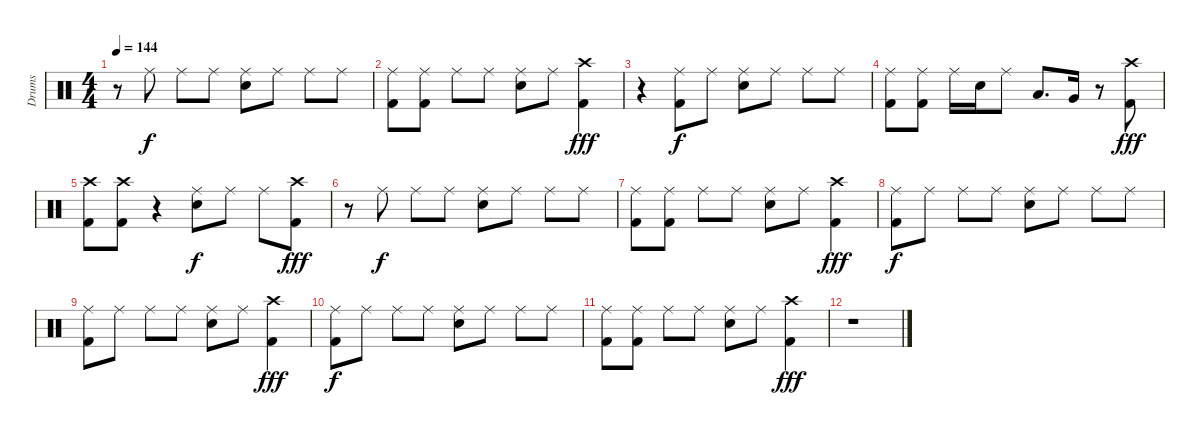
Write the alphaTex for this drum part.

\track ("Drums" "Drums") {instrument percussion}
\staff {score}
\articulation defaults
\ts (4 4)
\tempo 144
\clef neutral
\ks c
r.8{dy fff} "Ride (middle)".8{dy f} "Ride (middle)".8 "Ride (middle)".8 ("Ride (middle)" "Snare (hit) 2").8 "Ride (middle)".8 "Ride (middle)".8 "Ride (middle)".8 |
("Ride (middle)" "Kick (hit) 2").8{volume 8} ("Ride (middle)" "Kick (hit) 2").8 "Ride (middle)".8 "Ride (middle)".8 ("Ride (middle)" "Snare (hit) 2").8 "Ride (middle)".8 ("Crash high (hit)" "Kick (hit) 2").4{dy fff} |
r.4 ("Ride (middle)" "Kick (hit) 2").8{dy f volume 6} "Ride (middle)".8 ("Ride (middle)" "Snare (hit) 2").8 "Ride (middle)".8 "Ride (middle)".8 "Ride (middle)".8 |
("Ride (middle)" "Kick (hit) 2").8{volume 5} ("Ride (middle)" "Kick (hit) 2").8 "Ride (middle)".16 "Snare (hit) 2".16 "Ride (middle)".8 "Low Tom (hit)".8{d} "Very Low Tom (hit)".16 r.8 ("Crash high (hit)" "Kick (hit) 2").8{dy fff} |
("Crash high (hit)" "Kick (hit) 2").8{volume 4} ("Crash high (hit)" "Kick (hit) 2").8 r.4 ("Ride (middle)" "Snare (hit) 2").8{dy f} "Ride (middle)".8 "Ride (middle)".8 ("Crash high (hit)" "Kick (hit) 2").8{dy fff} |
r.8{volume 4} "Ride (middle)".8{dy f} "Ride (middle)".8 "Ride (middle)".8 ("Ride (middle)" "Snare (hit) 2").8 "Ride (middle)".8 "Ride (middle)".8 "Ride (middle)".8 |
("Ride (middle)" "Kick (hit) 2").8{volume 3} ("Ride (middle)" "Kick (hit) 2").8 "Ride (middle)".8 "Ride (middle)".8 ("Ride (middle)" "Snare (hit) 2").8 "Ride (middle)".8 ("Crash high (hit)" "Kick (hit) 2").4{dy fff} |
("Ride (middle)" "Kick (hit) 2").8{dy f volume 2} "Ride (middle)".8 "Ride (middle)".8 "Ride (middle)".8 ("Ride (middle)" "Snare (hit) 2").8 "Ride (middle)".8 "Ride (middle)".8 "Ride (middle)".8 |
("Ride (middle)" "Kick (hit) 2").8{volume 2} "Ride (middle)".8 "Ride (middle)".8 "Ride (middle)".8 ("Ride (middle)" "Snare (hit) 2").8 "Ride (middle)".8 ("Crash high (hit)" "Kick (hit) 2").4{dy fff} |
("Ride (middle)" "Kick (hit) 2").8{dy f volume 1} "Ride (middle)".8 "Ride (middle)".8 "Ride (middle)".8 ("Ride (middle)" "Snare (hit) 2").8 "Ride (middle)".8 "Ride (middle)".8 "Ride (middle)".8 |
("Ride (middle)" "Kick (hit) 2").8{volume 1} ("Ride (middle)" "Kick (hit) 2").8 "Ride (middle)".8 "Ride (middle)".8 ("Ride (middle)" "Snare (hit) 2").8 "Ride (middle)".8 ("Crash high (hit)" "Kick (hit) 2").4{dy fff} |
r.1
